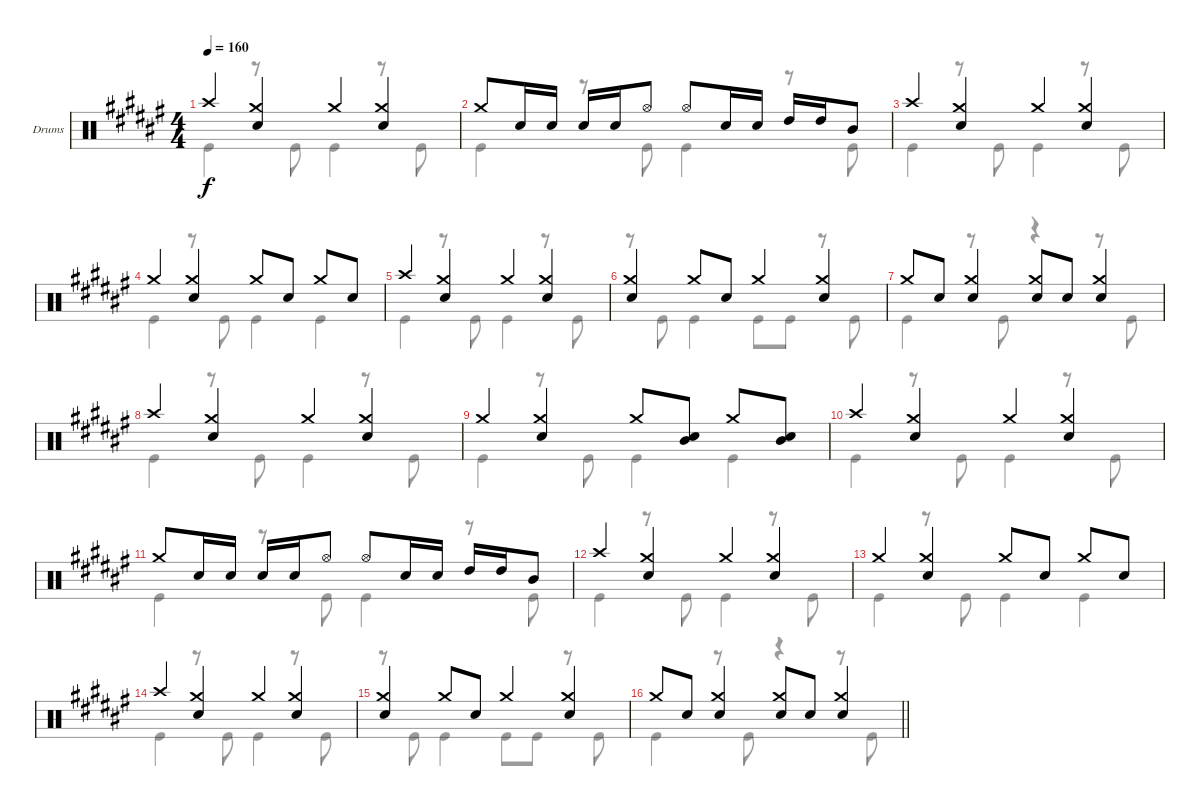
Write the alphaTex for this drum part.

\bracketExtendMode groupsimilarinstruments
\firstSystemTrackNameOrientation horizontal
\otherSystemsTrackNameOrientation horizontal
\track ("Drumkit" "Drums") {instrument percussion}
\staff {score}
\articulation defaults
\voice
\ts (4 4)
\tempo 160
\clef neutral
\ks d#minor "Crash high (hit)".4{dy f}
("Crash medium (hit)" "Snare (hit) 2").4 "Crash medium (hit)".4 ("Crash medium (hit)" "Snare (hit) 2").4 |
"Crash medium (hit)".8 "Snare (hit) 2".16 "Snare (hit) 2".16 "Snare (hit) 2".16 "Snare (hit) 2".16 "Hi-Hat (open)".8 "Hi-Hat (open)".8 "Snare (hit) 2".16 "Snare (hit) 2".16 "High Tom (hit)".16 "High Tom (hit)".16 "Mid Tom (hit)".8 |
"Crash high (hit)".4 ("Crash medium (hit)" "Snare (hit) 2").4 "Crash medium (hit)".4 ("Crash medium (hit)" "Snare (hit) 2").4 |
"Crash medium (hit)".4 ("Crash medium (hit)" "Snare (hit) 2").4 "Crash medium (hit)".8 "Snare (hit) 2".8 "Crash medium (hit)".8 "Snare (hit) 2".8 |
"Crash high (hit)".4 ("Crash medium (hit)" "Snare (hit) 2").4 "Crash medium (hit)".4 ("Crash medium (hit)" "Snare (hit) 2").4 |
("Crash medium (hit)" "Snare (hit) 2").4 "Crash medium (hit)".8 "Snare (hit) 2".8 "Crash medium (hit)".4 ("Crash medium (hit)" "Snare (hit) 2").4 |
"Crash medium (hit)".8 "Snare (hit) 2".8 ("Crash medium (hit)" "Snare (hit) 2").4 ("Crash medium (hit)" "Snare (hit) 2").8 "Snare (hit) 2".8 ("Crash medium (hit)" "Snare (hit) 2").4 |
"Crash high (hit)".4 ("Crash medium (hit)" "Snare (hit) 2").4 "Crash medium (hit)".4 ("Crash medium (hit)" "Snare (hit) 2").4 |
"Crash medium (hit)".4 ("Crash medium (hit)" "Snare (hit) 2").4 "Crash medium (hit)".8 ("Mid Tom (hit)" "Snare (hit) 2").8 "Crash medium (hit)".8 ("Mid Tom (hit)" "Snare (hit) 2").8 |
"Crash high (hit)".4 ("Crash medium (hit)" "Snare (hit) 2").4 "Crash medium (hit)".4 ("Crash medium (hit)" "Snare (hit) 2").4 |
"Crash medium (hit)".8 "Snare (hit) 2".16 "Snare (hit) 2".16 "Snare (hit) 2".16 "Snare (hit) 2".16 "Hi-Hat (open)".8 "Hi-Hat (open)".8 "Snare (hit) 2".16 "Snare (hit) 2".16 "High Tom (hit)".16 "High Tom (hit)".16 "Mid Tom (hit)".8 |
"Crash high (hit)".4 ("Crash medium (hit)" "Snare (hit) 2").4 "Crash medium (hit)".4 ("Crash medium (hit)" "Snare (hit) 2").4 |
"Crash medium (hit)".4 ("Crash medium (hit)" "Snare (hit) 2").4 "Crash medium (hit)".8 "Snare (hit) 2".8 "Crash medium (hit)".8 "Snare (hit) 2".8 |
"Crash high (hit)".4 ("Crash medium (hit)" "Snare (hit) 2").4 "Crash medium (hit)".4 ("Crash medium (hit)" "Snare (hit) 2").4 |
("Crash medium (hit)" "Snare (hit) 2").4 "Crash medium (hit)".8 "Snare (hit) 2".8 "Crash medium (hit)".4 ("Crash medium (hit)" "Snare (hit) 2").4 |
\barLineRight lightlight "Crash medium (hit)".8 "Snare (hit) 2".8
("Crash medium (hit)" "Snare (hit) 2").4 ("Crash medium (hit)" "Snare (hit) 2").8 "Snare (hit) 2".8 ("Crash medium (hit)" "Snare (hit) 2").4
\voice
\clef neutral
\ottava regular
\simile none
\ks d#minor "Kick (hit)".4{dy f}
r.8 "Kick (hit)".8 "Kick (hit)".4 r.8 "Kick (hit)".8 |
"Kick (hit)".4 r.8 "Kick (hit)".8 "Kick (hit)".4 r.8 "Kick (hit)".8 |
"Kick (hit)".4 r.8 "Kick (hit)".8 "Kick (hit)".4 r.8 "Kick (hit)".8 |
"Kick (hit)".4 r.8 "Kick (hit)".8 "Kick (hit)".4 "Kick (hit)".4 |
"Kick (hit)".4 r.8 "Kick (hit)".8 "Kick (hit)".4 r.8 "Kick (hit)".8 |
r.8 "Kick (hit)".8 "Kick (hit)".4 "Kick (hit)".8 "Kick (hit)".8 r.8 "Kick (hit)".8 |
"Kick (hit)".4 r.8 "Kick (hit)".8 r.4 r.8 "Kick (hit)".8 |
"Kick (hit)".4 r.8 "Kick (hit)".8 "Kick (hit)".4 r.8 "Kick (hit)".8 |
"Kick (hit)".4 r.8 "Kick (hit)".8 "Kick (hit)".4 "Kick (hit)".4 |
"Kick (hit)".4 r.8 "Kick (hit)".8 "Kick (hit)".4 r.8 "Kick (hit)".8 |
"Kick (hit)".4 r.8 "Kick (hit)".8 "Kick (hit)".4 r.8 "Kick (hit)".8 |
"Kick (hit)".4 r.8 "Kick (hit)".8 "Kick (hit)".4 r.8 "Kick (hit)".8 |
"Kick (hit)".4 r.8 "Kick (hit)".8 "Kick (hit)".4 "Kick (hit)".4 |
"Kick (hit)".4 r.8 "Kick (hit)".8 "Kick (hit)".4 r.8 "Kick (hit)".8 |
r.8 "Kick (hit)".8 "Kick (hit)".4 "Kick (hit)".8 "Kick (hit)".8 r.8 "Kick (hit)".8 |
\barLineRight lightlight "Kick (hit)".4
r.8 "Kick (hit)".8 r.4 r.8 "Kick (hit)".8
